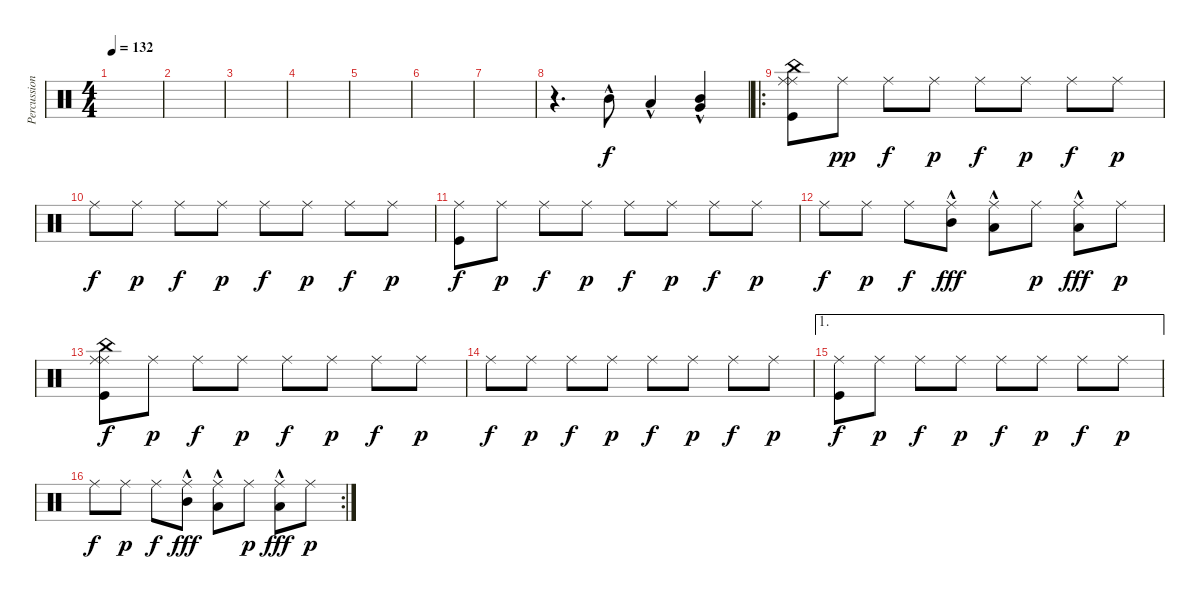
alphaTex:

\track ("Percussions" "Percussion") {instrument percussion}
\staff {score}
\articulation defaults
\ts (4 4)
\tempo 132
\clef neutral
\ks c
|
|
|
|
|
|
|
r.4{d} "Mid Tom (hit)"{hac}.8 "Low Tom (hit)"{hac}.4 ("Very Low Tom (hit)"{hac} "Mid Tom (hit)").4 |
\ro
("Kick (hit)" "Ride (middle)" "China (hit)" "Ride (middle)").8{dy f} "Ride (middle)".8{dy pp} "Ride (middle)".8{dy f} "Ride (middle)".8{dy p} "Ride (middle)".8{dy f} "Ride (middle)".8{dy p} "Ride (middle)".8{dy f} "Ride (middle)".8{dy p} |
"Ride (middle)".8{dy f} "Ride (middle)".8{dy p} "Ride (middle)".8{dy f} "Ride (middle)".8{dy p} "Ride (middle)".8{dy f} "Ride (middle)".8{dy p} "Ride (middle)".8{dy f} "Ride (middle)".8{dy p} |
("Kick (hit)" "Ride (middle)").8{dy f} "Ride (middle)".8{dy p} "Ride (middle)".8{dy f} "Ride (middle)".8{dy p} "Ride (middle)".8{dy f} "Ride (middle)".8{dy p} "Ride (middle)".8{dy f} "Ride (middle)".8{dy p} |
"Ride (middle)".8{dy f} "Ride (middle)".8{dy p} "Ride (middle)".8{dy f} ("Ride (middle)" "Mid Tom (hit)"{hac}).8{dy fff} ("Ride (middle)" "Low Tom (hit)"{hac}).8 "Ride (middle)".8{dy p} ("Ride (middle)" "Low Tom (hit)"{hac}).8{dy fff} "Ride (middle)".8{dy p} |
("Kick (hit)" "Ride (middle)" "China (hit)" "Ride (middle)").8{dy f} "Ride (middle)".8{dy p} "Ride (middle)".8{dy f} "Ride (middle)".8{dy p} "Ride (middle)".8{dy f} "Ride (middle)".8{dy p} "Ride (middle)".8{dy f} "Ride (middle)".8{dy p} |
"Ride (middle)".8{dy f} "Ride (middle)".8{dy p} "Ride (middle)".8{dy f} "Ride (middle)".8{dy p} "Ride (middle)".8{dy f} "Ride (middle)".8{dy p} "Ride (middle)".8{dy f} "Ride (middle)".8{dy p} |
\ae 1
("Kick (hit)" "Ride (middle)").8{dy f} "Ride (middle)".8{dy p} "Ride (middle)".8{dy f} "Ride (middle)".8{dy p} "Ride (middle)".8{dy f} "Ride (middle)".8{dy p} "Ride (middle)".8{dy f} "Ride (middle)".8{dy p} |
\rc 2 "Ride (middle)".8{dy f} "Ride (middle)".8{dy p} "Ride (middle)".8{dy f}
("Ride (middle)" "Mid Tom (hit)"{hac}).8{dy fff} ("Ride (middle)" "Low Tom (hit)"{hac}).8 "Ride (middle)".8{dy p} ("Ride (middle)" "Low Tom (hit)"{hac}).8{dy fff} "Ride (middle)".8{dy p}
